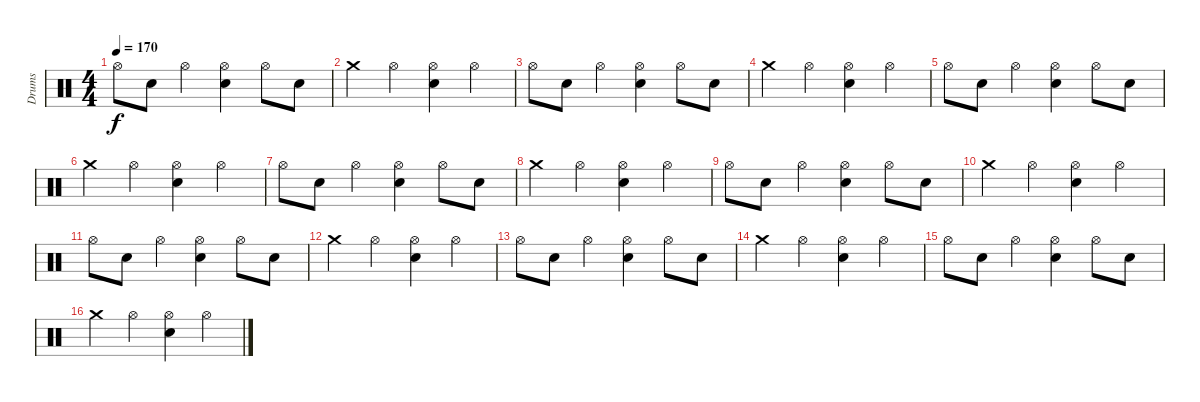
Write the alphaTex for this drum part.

\track ("Drums" "Drums") {instrument percussion}
\staff {score}
\articulation defaults
\ts (4 4)
\tempo 170
\clef neutral
\ks c "Hi-Hat (open)".8{dy f} "Electric Snare (hit)".8 "Hi-Hat (open)".4
("Electric Snare (hit)" "Hi-Hat (open)").4 "Hi-Hat (open)".8 "Electric Snare (hit)".8 |
"Crash medium (hit)".4 "Hi-Hat (open)".4 ("Electric Snare (hit)" "Hi-Hat (open)").4 "Hi-Hat (open)".4 |
"Hi-Hat (open)".8 "Electric Snare (hit)".8 "Hi-Hat (open)".4 ("Electric Snare (hit)" "Hi-Hat (open)").4 "Hi-Hat (open)".8 "Electric Snare (hit)".8 |
"Crash medium (hit)".4 "Hi-Hat (open)".4 ("Electric Snare (hit)" "Hi-Hat (open)").4 "Hi-Hat (open)".4 |
"Hi-Hat (open)".8 "Electric Snare (hit)".8 "Hi-Hat (open)".4 ("Electric Snare (hit)" "Hi-Hat (open)").4 "Hi-Hat (open)".8 "Electric Snare (hit)".8 |
"Crash medium (hit)".4 "Hi-Hat (open)".4 ("Electric Snare (hit)" "Hi-Hat (open)").4 "Hi-Hat (open)".4 |
"Hi-Hat (open)".8 "Electric Snare (hit)".8 "Hi-Hat (open)".4 ("Electric Snare (hit)" "Hi-Hat (open)").4 "Hi-Hat (open)".8 "Electric Snare (hit)".8 |
"Crash medium (hit)".4 "Hi-Hat (open)".4 ("Electric Snare (hit)" "Hi-Hat (open)").4 "Hi-Hat (open)".4 |
"Hi-Hat (open)".8 "Electric Snare (hit)".8 "Hi-Hat (open)".4 ("Electric Snare (hit)" "Hi-Hat (open)").4 "Hi-Hat (open)".8 "Electric Snare (hit)".8 |
"Crash medium (hit)".4 "Hi-Hat (open)".4 ("Electric Snare (hit)" "Hi-Hat (open)").4 "Hi-Hat (open)".4 |
"Hi-Hat (open)".8 "Electric Snare (hit)".8 "Hi-Hat (open)".4 ("Electric Snare (hit)" "Hi-Hat (open)").4 "Hi-Hat (open)".8 "Electric Snare (hit)".8 |
"Crash medium (hit)".4 "Hi-Hat (open)".4 ("Electric Snare (hit)" "Hi-Hat (open)").4 "Hi-Hat (open)".4 |
"Hi-Hat (open)".8 "Electric Snare (hit)".8 "Hi-Hat (open)".4 ("Electric Snare (hit)" "Hi-Hat (open)").4 "Hi-Hat (open)".8 "Electric Snare (hit)".8 |
"Crash medium (hit)".4 "Hi-Hat (open)".4 ("Electric Snare (hit)" "Hi-Hat (open)").4 "Hi-Hat (open)".4 |
"Hi-Hat (open)".8 "Electric Snare (hit)".8 "Hi-Hat (open)".4 ("Electric Snare (hit)" "Hi-Hat (open)").4 "Hi-Hat (open)".8 "Electric Snare (hit)".8 |
"Crash medium (hit)".4 "Hi-Hat (open)".4 ("Electric Snare (hit)" "Hi-Hat (open)").4 "Hi-Hat (open)".4
